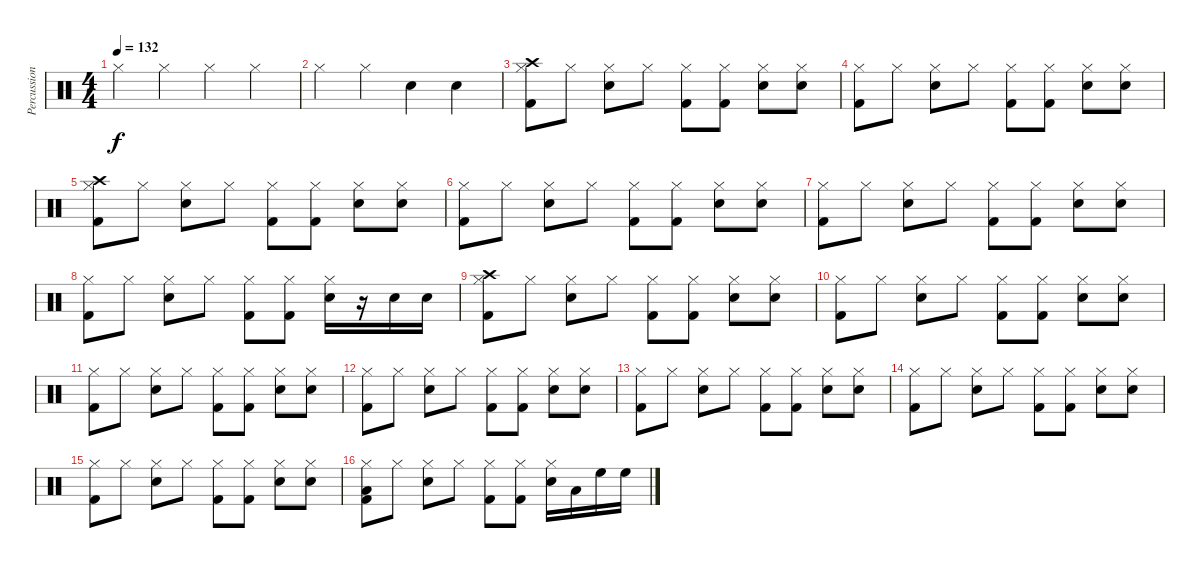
\track ("Percussions" "Percussion") {instrument percussion}
\staff {score}
\articulation defaults
\ts (4 4)
\tempo 132
\clef neutral
\ks c "Hi-Hat (closed)".4{dy f} "Hi-Hat (closed)".4 "Hi-Hat (closed)".4 "Hi-Hat (closed)".4
|
"Hi-Hat (closed)".4 "Hi-Hat (closed)".4 "Snare (hit) 2".4 "Snare (hit) 2".4 |
("Hi-Hat (closed)" "Crash high (hit)" "Kick (hit) 2").8 "Hi-Hat (closed)".8 ("Hi-Hat (closed)" "Snare (hit) 2").8 "Hi-Hat (closed)".8 ("Hi-Hat (closed)" "Kick (hit) 2").8 ("Hi-Hat (closed)" "Kick (hit) 2").8 ("Hi-Hat (closed)" "Snare (hit) 2").8 ("Hi-Hat (closed)" "Snare (hit) 2").8 |
("Hi-Hat (closed)" "Kick (hit) 2").8 "Hi-Hat (closed)".8 ("Hi-Hat (closed)" "Snare (hit) 2").8 "Hi-Hat (closed)".8 ("Hi-Hat (closed)" "Kick (hit) 2").8 ("Hi-Hat (closed)" "Kick (hit) 2").8 ("Hi-Hat (closed)" "Snare (hit) 2").8 ("Hi-Hat (closed)" "Snare (hit) 2").8 |
("Hi-Hat (closed)" "Crash high (hit)" "Kick (hit) 2").8 "Hi-Hat (closed)".8 ("Hi-Hat (closed)" "Snare (hit) 2").8 "Hi-Hat (closed)".8 ("Hi-Hat (closed)" "Kick (hit) 2").8 ("Hi-Hat (closed)" "Kick (hit) 2").8 ("Hi-Hat (closed)" "Snare (hit) 2").8 ("Hi-Hat (closed)" "Snare (hit) 2").8 |
("Hi-Hat (closed)" "Kick (hit) 2").8 "Hi-Hat (closed)".8 ("Hi-Hat (closed)" "Snare (hit) 2").8 "Hi-Hat (closed)".8 ("Hi-Hat (closed)" "Kick (hit) 2").8 ("Hi-Hat (closed)" "Kick (hit) 2").8 ("Hi-Hat (closed)" "Snare (hit) 2").8 ("Hi-Hat (closed)" "Snare (hit) 2").8 |
("Hi-Hat (closed)" "Kick (hit) 2").8 "Hi-Hat (closed)".8 ("Hi-Hat (closed)" "Snare (hit) 2").8 "Hi-Hat (closed)".8 ("Hi-Hat (closed)" "Kick (hit) 2").8 ("Hi-Hat (closed)" "Kick (hit) 2").8 ("Hi-Hat (closed)" "Snare (hit) 2").8 ("Hi-Hat (closed)" "Snare (hit) 2").8 |
("Hi-Hat (closed)" "Kick (hit) 2").8 "Hi-Hat (closed)".8 ("Hi-Hat (closed)" "Snare (hit) 2").8 "Hi-Hat (closed)".8 ("Hi-Hat (closed)" "Kick (hit) 2").8 ("Hi-Hat (closed)" "Kick (hit) 2").8 ("Hi-Hat (closed)" "Snare (hit) 2").16 r.16 "Snare (hit) 2".16 "Snare (hit) 2".16 |
("Hi-Hat (closed)" "Crash high (hit)" "Kick (hit) 2").8 "Hi-Hat (closed)".8 ("Hi-Hat (closed)" "Snare (hit) 2").8 "Hi-Hat (closed)".8 ("Hi-Hat (closed)" "Kick (hit) 2").8 ("Hi-Hat (closed)" "Kick (hit) 2").8 ("Hi-Hat (closed)" "Snare (hit) 2").8 ("Hi-Hat (closed)" "Snare (hit) 2").8 |
("Hi-Hat (closed)" "Kick (hit) 2").8 "Hi-Hat (closed)".8 ("Hi-Hat (closed)" "Snare (hit) 2").8 "Hi-Hat (closed)".8 ("Hi-Hat (closed)" "Kick (hit) 2").8 ("Hi-Hat (closed)" "Kick (hit) 2").8 ("Hi-Hat (closed)" "Snare (hit) 2").8 ("Hi-Hat (closed)" "Snare (hit) 2").8 |
("Hi-Hat (closed)" "Kick (hit) 2").8 "Hi-Hat (closed)".8 ("Hi-Hat (closed)" "Snare (hit) 2").8 "Hi-Hat (closed)".8 ("Hi-Hat (closed)" "Kick (hit) 2").8 ("Hi-Hat (closed)" "Kick (hit) 2").8 ("Hi-Hat (closed)" "Snare (hit) 2").8 ("Hi-Hat (closed)" "Snare (hit) 2").8 |
("Hi-Hat (closed)" "Kick (hit) 2").8 "Hi-Hat (closed)".8 ("Hi-Hat (closed)" "Snare (hit) 2").8 "Hi-Hat (closed)".8 ("Hi-Hat (closed)" "Kick (hit) 2").8 ("Hi-Hat (closed)" "Kick (hit) 2").8 ("Hi-Hat (closed)" "Snare (hit) 2").8 ("Hi-Hat (closed)" "Snare (hit) 2").8 |
("Hi-Hat (closed)" "Kick (hit) 2").8 "Hi-Hat (closed)".8 ("Hi-Hat (closed)" "Snare (hit) 2").8 "Hi-Hat (closed)".8 ("Hi-Hat (closed)" "Kick (hit) 2").8 ("Hi-Hat (closed)" "Kick (hit) 2").8 ("Hi-Hat (closed)" "Snare (hit) 2").8 ("Hi-Hat (closed)" "Snare (hit) 2").8 |
("Hi-Hat (closed)" "Kick (hit) 2").8 "Hi-Hat (closed)".8 ("Hi-Hat (closed)" "Snare (hit) 2").8 "Hi-Hat (closed)".8 ("Hi-Hat (closed)" "Kick (hit) 2").8 ("Hi-Hat (closed)" "Kick (hit) 2").8 ("Hi-Hat (closed)" "Snare (hit) 2").8 ("Hi-Hat (closed)" "Snare (hit) 2").8 |
("Hi-Hat (closed)" "Kick (hit) 2").8 "Hi-Hat (closed)".8 ("Hi-Hat (closed)" "Snare (hit) 2").8 "Hi-Hat (closed)".8 ("Hi-Hat (closed)" "Kick (hit) 2").8 ("Hi-Hat (closed)" "Kick (hit) 2").8 ("Hi-Hat (closed)" "Snare (hit) 2").8 ("Hi-Hat (closed)" "Snare (hit) 2").8 |
("Hi-Hat (closed)" "Low Tom (hit)" "Kick (hit) 2").8 "Hi-Hat (closed)".8 ("Hi-Hat (closed)" "Snare (hit) 2").8 "Hi-Hat (closed)".8 ("Hi-Hat (closed)" "Kick (hit) 2").8 ("Hi-Hat (closed)" "Kick (hit) 2").8 ("Hi-Hat (closed)" "Snare (hit) 2").16 "Low Tom (hit)".16 "High Floor Tom (hit)".16 "High Floor Tom (hit)".16
